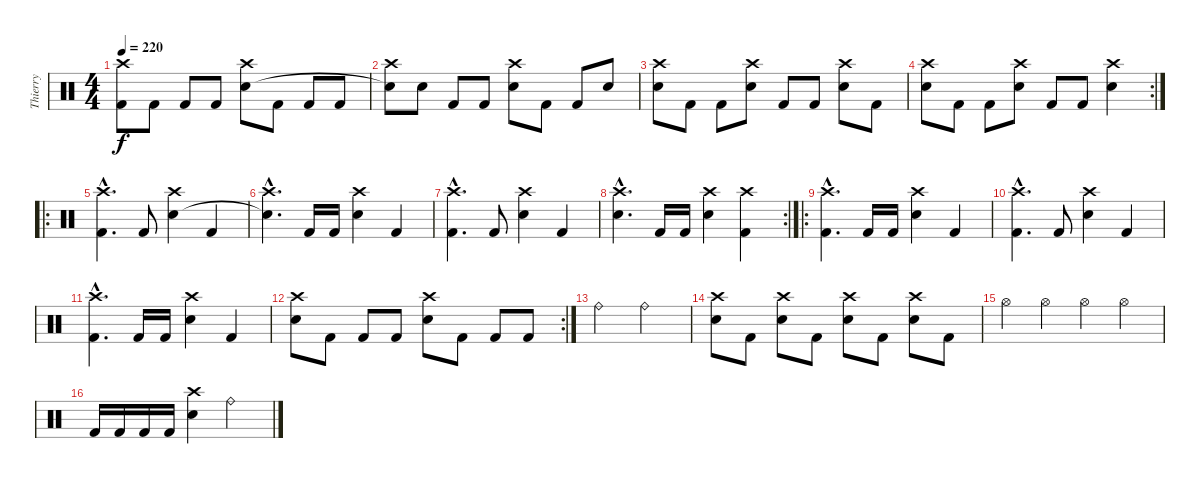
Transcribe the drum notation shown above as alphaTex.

\track ("Thierry" "Thierry") {instrument percussion}
\staff {score}
\articulation defaults
\ts (4 4)
\tempo 220
\clef neutral
\ks c
("Crash high (hit)" "Kick (hit) 2").8{dy f} "Kick (hit) 2".8 "Kick (hit) 2".8 "Kick (hit) 2".8 ("Crash high (hit)" "Electric Snare (hit)").8 "Kick (hit) 2".8 "Kick (hit) 2".8 "Kick (hit) 2".8 |
("Crash high (hit)" "Snare (hit)"{t}).8 "Electric Snare (hit)".8 "Kick (hit) 2".8 "Kick (hit) 2".8 ("Crash high (hit)" "Electric Snare (hit)").8 "Kick (hit) 2".8 "Kick (hit) 2".8 "Electric Snare (hit)".8 |
("Crash high (hit)" "Electric Snare (hit)").8 "Kick (hit) 2".8 "Kick (hit) 2".8 ("Crash high (hit)" "Electric Snare (hit)").8 "Kick (hit) 2".8 "Kick (hit) 2".8 ("Crash high (hit)" "Electric Snare (hit)").8 "Kick (hit) 2".8 |
\rc 2
("Crash high (hit)" "Electric Snare (hit)").8 "Kick (hit) 2".8 "Kick (hit) 2".8 ("Crash high (hit)" "Electric Snare (hit)").8 "Kick (hit) 2".8 "Kick (hit) 2".8 ("Crash high (hit)" "Electric Snare (hit)").4 |
\ro
("Crash high (hit)"{hac} "Kick (hit) 2"{hac}).4{d} "Kick (hit) 2".8 ("Crash high (hit)" "Electric Snare (hit)").4 "Kick (hit) 2".4 |
("Crash high (hit)"{hac} "Electric Snare (hit)"{hac t}).4{d} "Kick (hit) 2".16 "Kick (hit) 2".16 ("Crash high (hit)" "Electric Snare (hit)").4 "Kick (hit) 2".4 |
("Crash high (hit)"{hac} "Kick (hit) 2"{hac}).4{d} "Kick (hit) 2".8 ("Crash high (hit)" "Electric Snare (hit)").4 "Kick (hit) 2".4 |
\rc 2
("Crash high (hit)"{hac} "Electric Snare (hit)"{hac}).4{d} "Kick (hit) 2".16 "Kick (hit) 2".16 ("Crash high (hit)" "Electric Snare (hit)").4 ("Crash high (hit)" "Kick (hit) 2").4 |
\ro
("Crash high (hit)"{hac} "Kick (hit) 2"{hac}).4{d} "Kick (hit) 2".16 "Kick (hit) 2".16 ("Crash high (hit)" "Electric Snare (hit)").4 "Kick (hit) 2".4 |
("Crash high (hit)"{hac} "Kick (hit) 2"{hac}).4{d} "Kick (hit) 2".8 ("Crash high (hit)" "Electric Snare (hit)").4 "Kick (hit) 2".4 |
("Crash high (hit)"{hac} "Kick (hit) 2"{hac}).4{d} "Kick (hit) 2".16 "Kick (hit) 2".16 ("Crash high (hit)" "Electric Snare (hit)").4 "Kick (hit) 2".4 |
\rc 2
("Crash high (hit)" "Electric Snare (hit)").8 "Kick (hit) 2".8 "Kick (hit) 2".8 "Kick (hit) 2".8 ("Crash high (hit)" "Electric Snare (hit)").8 "Kick (hit) 2".8 "Kick (hit) 2".8 "Kick (hit) 2".8 |
"Ride (bell)".2 "Ride (bell)".2 |
("Electric Snare (hit)" "Crash high (hit)").8 "Kick (hit) 2".8 ("Electric Snare (hit)" "Crash high (hit)").8 "Kick (hit) 2".8 ("Electric Snare (hit)" "Crash high (hit)").8 "Kick (hit) 2".8 ("Electric Snare (hit)" "Crash high (hit)").8 "Kick (hit) 2".8 |
"Hi-Hat (open)".4 "Hi-Hat (open)".4 "Hi-Hat (open)".4 "Hi-Hat (open)".4 |
"Kick (hit) 2".16 "Kick (hit) 2".16 "Kick (hit) 2".16 "Kick (hit) 2".16 ("Electric Snare (hit)" "Crash high (hit)").4 "Ride (bell)".2
